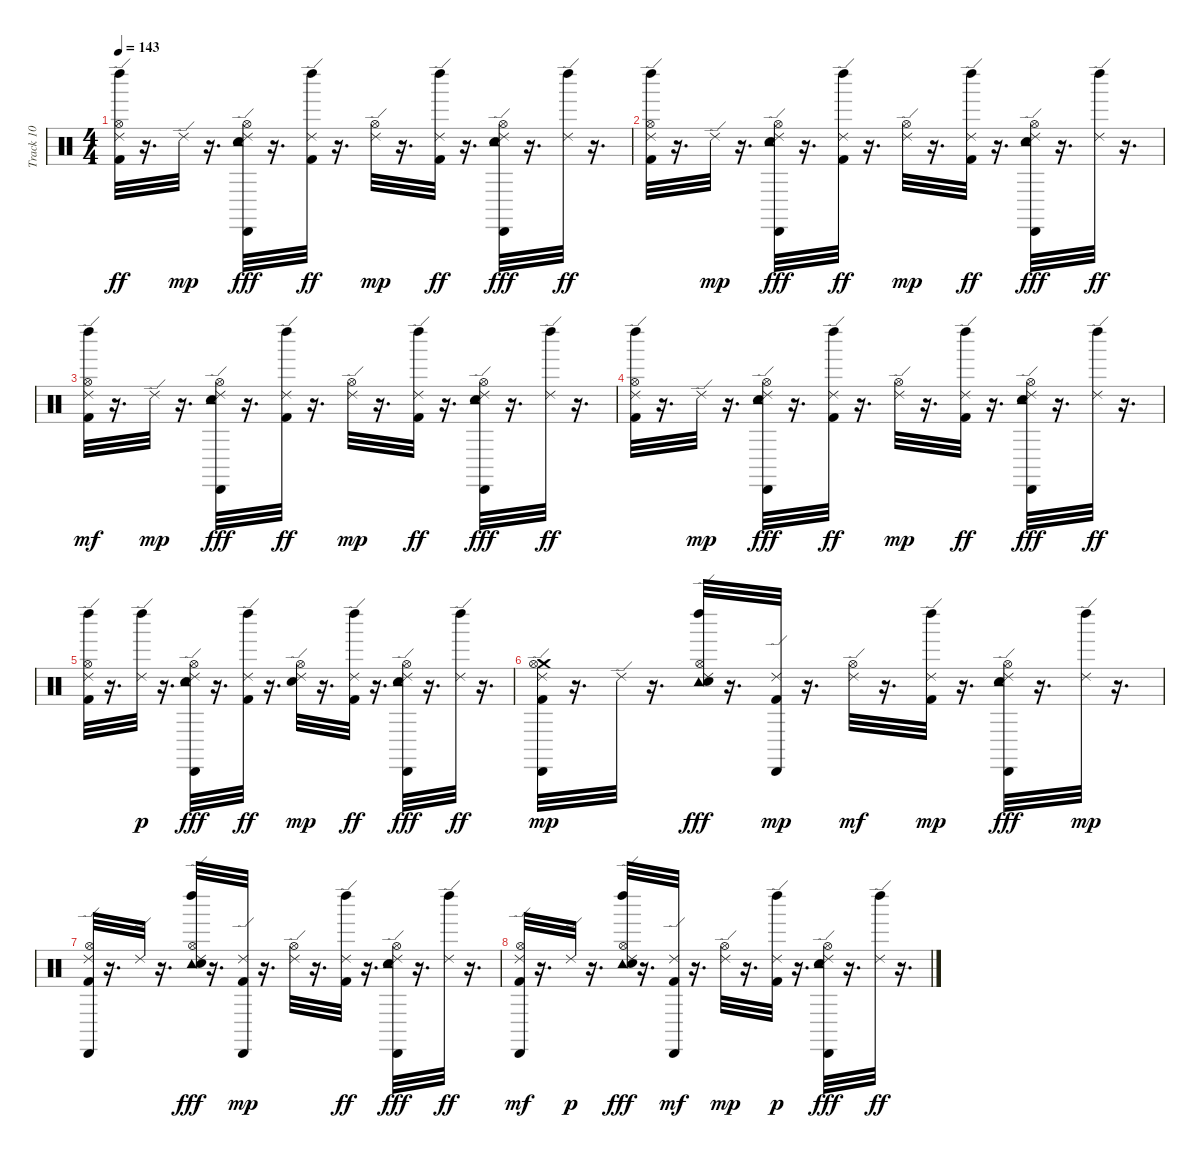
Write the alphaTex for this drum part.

\track ("Track 10" "Track 10") {instrument percussion}
\staff {score}
\articulation defaults
\ts (4 4)
\tempo 143
\clef neutral
\ks c
("Kick (hit) 2" "Ride (edge) 2" "Hi-Hat (open)" "Left Maraca (hit)").32{dy ff} r.16{d} "Ride (edge) 2".32{dy mp} r.16{d} ("Snare (hit) 2" "Hi-Hat (open)" "Ride (edge) 2" "Cabasa (hit)" "Tambourine (hit)").32{dy fff} r.16{d} ("Kick (hit) 2" "Ride (edge) 2" "Left Maraca (hit)").32{dy ff} r.16{d} ("Hi-Hat (open)" "Ride (edge) 2").32{dy mp} r.16{d} ("Kick (hit) 2" "Ride (edge) 2" "Left Maraca (hit)").32{dy ff} r.16{d} ("Snare (hit) 2" "Ride (edge) 2" "Hi-Hat (open)" "Cabasa (hit)" "Tambourine (hit)").32{dy fff} r.16{d} ("Ride (edge) 2" "Left Maraca (hit)").32{dy ff} r.16{d} |
("Kick (hit) 2" "Ride (edge) 2" "Hi-Hat (open)" "Left Maraca (hit)").32 r.16{d} "Ride (edge) 2".32{dy mp} r.16{d} ("Snare (hit) 2" "Hi-Hat (open)" "Ride (edge) 2" "Cabasa (hit)" "Tambourine (hit)").32{dy fff} r.16{d} ("Kick (hit) 2" "Ride (edge) 2" "Left Maraca (hit)").32{dy ff} r.16{d} ("Hi-Hat (open)" "Ride (edge) 2").32{dy mp} r.16{d} ("Kick (hit) 2" "Ride (edge) 2" "Left Maraca (hit)").32{dy ff} r.16{d} ("Snare (hit) 2" "Ride (edge) 2" "Hi-Hat (open)" "Cabasa (hit)" "Tambourine (hit)").32{dy fff} r.16{d} ("Ride (edge) 2" "Left Maraca (hit)").32{dy ff} r.16{d} |
("Kick (hit) 2" "Ride (edge) 2" "Hi-Hat (open)" "Left Maraca (hit)").32{dy mf} r.16{d} "Ride (edge) 2".32{dy mp} r.16{d} ("Snare (hit) 2" "Hi-Hat (open)" "Ride (edge) 2" "Cabasa (hit)" "Tambourine (hit)").32{dy fff} r.16{d} ("Kick (hit) 2" "Ride (edge) 2" "Left Maraca (hit)").32{dy ff} r.16{d} ("Hi-Hat (open)" "Ride (edge) 2").32{dy mp} r.16{d} ("Kick (hit) 2" "Ride (edge) 2" "Left Maraca (hit)").32{dy ff} r.16{d} ("Snare (hit) 2" "Ride (edge) 2" "Hi-Hat (open)" "Cabasa (hit)" "Tambourine (hit)").32{dy fff} r.16{d} ("Ride (edge) 2" "Left Maraca (hit)").32{dy ff} r.16{d} |
("Kick (hit) 2" "Ride (edge) 2" "Hi-Hat (open)" "Left Maraca (hit)").32 r.16{d} "Ride (edge) 2".32{dy mp} r.16{d} ("Snare (hit) 2" "Hi-Hat (open)" "Ride (edge) 2" "Cabasa (hit)" "Tambourine (hit)").32{dy fff} r.16{d} ("Kick (hit) 2" "Ride (edge) 2" "Left Maraca (hit)").32{dy ff} r.16{d} ("Hi-Hat (open)" "Ride (edge) 2").32{dy mp} r.16{d} ("Kick (hit) 2" "Ride (edge) 2" "Left Maraca (hit)").32{dy ff} r.16{d} ("Snare (hit) 2" "Ride (edge) 2" "Hi-Hat (open)" "Cabasa (hit)" "Tambourine (hit)").32{dy fff} r.16{d} ("Ride (edge) 2" "Left Maraca (hit)").32{dy ff} r.16{d} |
("Kick (hit) 2" "Ride (edge) 2" "Hi-Hat (open)" "Left Maraca (hit)").32 r.16{d} ("Ride (edge) 2" "Left Maraca (hit)").32{dy p} r.16{d} ("Snare (hit) 2" "Hi-Hat (open)" "Ride (edge) 2" "Cabasa (hit)" "Tambourine (hit)").32{dy fff} r.16{d} ("Kick (hit) 2" "Ride (edge) 2" "Left Maraca (hit)").32{dy ff} r.16{d} ("Snare (hit) 2" "Hi-Hat (open)" "Ride (edge) 2").32{dy mp} r.16{d} ("Kick (hit) 2" "Ride (edge) 2" "Left Maraca (hit)").32{dy ff} r.16{d} ("Snare (hit) 2" "Ride (edge) 2" "Hi-Hat (open)" "Cabasa (hit)" "Tambourine (hit)").32{dy fff} r.16{d} ("Ride (edge) 2" "Left Maraca (hit)").32{dy ff} r.16{d} |
("Kick (hit) 2" "Crash medium (hit)" "Ride (edge) 2" "Cabasa (hit)" "Hi-Hat (open)").32{dy mp} r.16{d} "Ride (edge) 2".32 r.16{d} ("Ride (edge) 2" "Tambourine (hit)" "Left Maraca (hit)" "Hi-Hat (open)" "Snare (hit) 2").32{dy fff} r.16{d} ("Kick (hit) 2" "Ride (edge) 2" "Cabasa (hit)").32{dy mp} r.16{d} ("Ride (edge) 2" "Hi-Hat (open)").32{dy mf} r.16{d} ("Kick (hit) 2" "Ride (edge) 2" "Left Maraca (hit)").32{dy mp} r.16{d} ("Ride (edge) 2" "Tambourine (hit)" "Cabasa (hit)" "Hi-Hat (open)" "Snare (hit) 2").32{dy fff} r.16{d} ("Ride (edge) 2" "Left Maraca (hit)").32{dy mp} r.16{d} |
("Kick (hit) 2" "Ride (edge) 2" "Cabasa (hit)" "Hi-Hat (open)").32 r.16{d} "Ride (edge) 2".32 r.16{d} ("Ride (edge) 2" "Tambourine (hit)" "Left Maraca (hit)" "Hi-Hat (open)" "Snare (hit) 2").32{dy fff} r.16{d} ("Kick (hit) 2" "Ride (edge) 2" "Cabasa (hit)").32{dy mp} r.16{d} ("Ride (edge) 2" "Hi-Hat (open)").32 r.16{d} ("Kick (hit) 2" "Ride (edge) 2" "Left Maraca (hit)").32{dy ff} r.16{d} ("Ride (edge) 2" "Tambourine (hit)" "Cabasa (hit)" "Hi-Hat (open)" "Snare (hit) 2").32{dy fff} r.16{d} ("Ride (edge) 2" "Left Maraca (hit)").32{dy ff} r.16{d} |
("Kick (hit) 2" "Ride (edge) 2" "Cabasa (hit)" "Hi-Hat (open)").32{dy mf} r.16{d} "Ride (edge) 2".32{dy p} r.16{d} ("Ride (edge) 2" "Tambourine (hit)" "Left Maraca (hit)" "Hi-Hat (open)" "Snare (hit) 2").32{dy fff} r.16{d} ("Kick (hit) 2" "Ride (edge) 2" "Cabasa (hit)").32{dy mf} r.16{d} ("Ride (edge) 2" "Hi-Hat (open)").32{dy mp} r.16{d} ("Kick (hit) 2" "Ride (edge) 2" "Left Maraca (hit)").32{dy p} r.16{d} ("Ride (edge) 2" "Tambourine (hit)" "Cabasa (hit)" "Hi-Hat (open)" "Snare (hit) 2").32{dy fff} r.16{d} ("Ride (edge) 2" "Left Maraca (hit)").32{dy ff} r.16{d}
